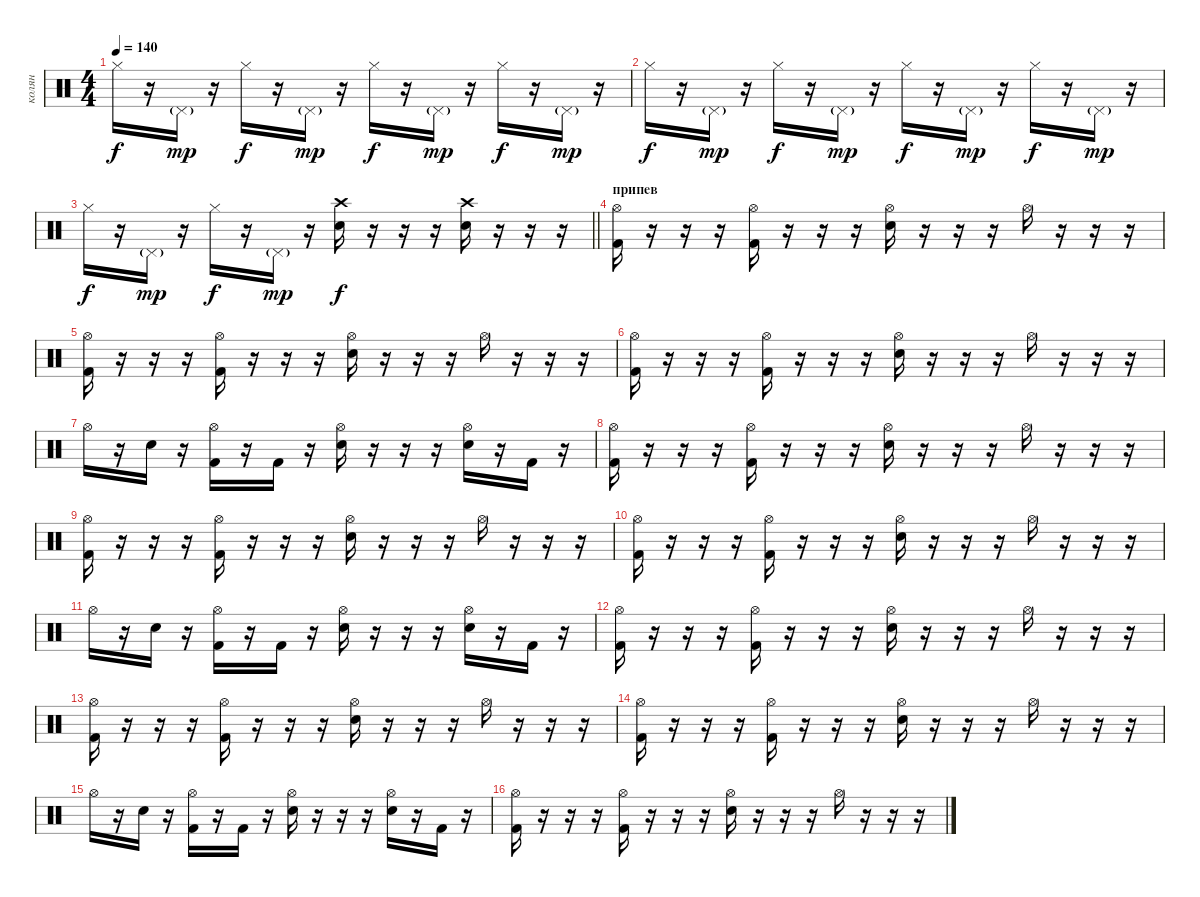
\track ("колян" "колян") {instrument percussion}
\staff {score}
\articulation defaults
\ts (4 4)
\tempo 140
\clef neutral
\ks c "Hi-Hat (closed)".16{dy f}
r.16 "Pedal Hi-Hat (hit)"{g}.16{dy mp} r.16 "Hi-Hat (closed)".16{dy f} r.16 "Pedal Hi-Hat (hit)"{g}.16{dy mp} r.16 "Hi-Hat (closed)".16{dy f} r.16 "Pedal Hi-Hat (hit)"{g}.16{dy mp} r.16 "Hi-Hat (closed)".16{dy f} r.16 "Pedal Hi-Hat (hit)"{g}.16{dy mp} r.16 |
"Hi-Hat (closed)".16{dy f} r.16 "Pedal Hi-Hat (hit)"{g}.16{dy mp} r.16 "Hi-Hat (closed)".16{dy f} r.16 "Pedal Hi-Hat (hit)"{g}.16{dy mp} r.16 "Hi-Hat (closed)".16{dy f} r.16 "Pedal Hi-Hat (hit)"{g}.16{dy mp} r.16 "Hi-Hat (closed)".16{dy f} r.16 "Pedal Hi-Hat (hit)"{g}.16{dy mp} r.16 |
\barLineRight lightlight "Hi-Hat (closed)".16{dy f}
r.16 "Pedal Hi-Hat (hit)"{g}.16{dy mp} r.16 "Hi-Hat (closed)".16{dy f} r.16 "Pedal Hi-Hat (hit)"{g}.16{dy mp} r.16 ("Snare (hit) 2" "Crash high (hit)").16{dy f} r.16 r.16 r.16 ("Snare (hit) 2" "Crash high (hit)").16 r.16 r.16 r.16 |
\section ("" "припев")
("Kick (hit) 2" "Hi-Hat (open)").16 r.16 r.16 r.16 ("Kick (hit) 2" "Hi-Hat (open)").16 r.16 r.16 r.16 ("Snare (hit) 2" "Hi-Hat (open)").16 r.16 r.16 r.16 "Hi-Hat (open)".16 r.16 r.16 r.16 |
("Kick (hit) 2" "Hi-Hat (open)").16 r.16 r.16 r.16 ("Kick (hit) 2" "Hi-Hat (open)").16 r.16 r.16 r.16 ("Snare (hit) 2" "Hi-Hat (open)").16 r.16 r.16 r.16 "Hi-Hat (open)".16 r.16 r.16 r.16 |
("Kick (hit) 2" "Hi-Hat (open)").16 r.16 r.16 r.16 ("Kick (hit) 2" "Hi-Hat (open)").16 r.16 r.16 r.16 ("Snare (hit) 2" "Hi-Hat (open)").16 r.16 r.16 r.16 "Hi-Hat (open)".16 r.16 r.16 r.16 |
"Hi-Hat (open)".16 r.16 "Snare (hit) 2".16 r.16 ("Kick (hit) 2" "Hi-Hat (open)").16 r.16 "Kick (hit) 2".16 r.16 ("Snare (hit) 2" "Hi-Hat (open)").16 r.16 r.16 r.16 ("Snare (hit) 2" "Hi-Hat (open)").16 r.16 "Kick (hit) 2".16 r.16 |
("Kick (hit) 2" "Hi-Hat (open)").16 r.16 r.16 r.16 ("Kick (hit) 2" "Hi-Hat (open)").16 r.16 r.16 r.16 ("Snare (hit) 2" "Hi-Hat (open)").16 r.16 r.16 r.16 "Hi-Hat (open)".16 r.16 r.16 r.16 |
("Kick (hit) 2" "Hi-Hat (open)").16 r.16 r.16 r.16 ("Kick (hit) 2" "Hi-Hat (open)").16 r.16 r.16 r.16 ("Snare (hit) 2" "Hi-Hat (open)").16 r.16 r.16 r.16 "Hi-Hat (open)".16 r.16 r.16 r.16 |
("Kick (hit) 2" "Hi-Hat (open)").16 r.16 r.16 r.16 ("Kick (hit) 2" "Hi-Hat (open)").16 r.16 r.16 r.16 ("Snare (hit) 2" "Hi-Hat (open)").16 r.16 r.16 r.16 "Hi-Hat (open)".16 r.16 r.16 r.16 |
"Hi-Hat (open)".16 r.16 "Snare (hit) 2".16 r.16 ("Kick (hit) 2" "Hi-Hat (open)").16 r.16 "Kick (hit) 2".16 r.16 ("Snare (hit) 2" "Hi-Hat (open)").16 r.16 r.16 r.16 ("Snare (hit) 2" "Hi-Hat (open)").16 r.16 "Kick (hit) 2".16 r.16 |
("Kick (hit) 2" "Hi-Hat (open)").16 r.16 r.16 r.16 ("Kick (hit) 2" "Hi-Hat (open)").16 r.16 r.16 r.16 ("Snare (hit) 2" "Hi-Hat (open)").16 r.16 r.16 r.16 "Hi-Hat (open)".16 r.16 r.16 r.16 |
("Kick (hit) 2" "Hi-Hat (open)").16 r.16 r.16 r.16 ("Kick (hit) 2" "Hi-Hat (open)").16 r.16 r.16 r.16 ("Snare (hit) 2" "Hi-Hat (open)").16 r.16 r.16 r.16 "Hi-Hat (open)".16 r.16 r.16 r.16 |
("Kick (hit) 2" "Hi-Hat (open)").16 r.16 r.16 r.16 ("Kick (hit) 2" "Hi-Hat (open)").16 r.16 r.16 r.16 ("Snare (hit) 2" "Hi-Hat (open)").16 r.16 r.16 r.16 "Hi-Hat (open)".16 r.16 r.16 r.16 |
"Hi-Hat (open)".16 r.16 "Snare (hit) 2".16 r.16 ("Kick (hit) 2" "Hi-Hat (open)").16 r.16 "Kick (hit) 2".16 r.16 ("Snare (hit) 2" "Hi-Hat (open)").16 r.16 r.16 r.16 ("Snare (hit) 2" "Hi-Hat (open)").16 r.16 "Kick (hit) 2".16 r.16 |
("Kick (hit) 2" "Hi-Hat (open)").16 r.16 r.16 r.16 ("Kick (hit) 2" "Hi-Hat (open)").16 r.16 r.16 r.16 ("Snare (hit) 2" "Hi-Hat (open)").16 r.16 r.16 r.16 "Hi-Hat (open)".16 r.16 r.16 r.16
